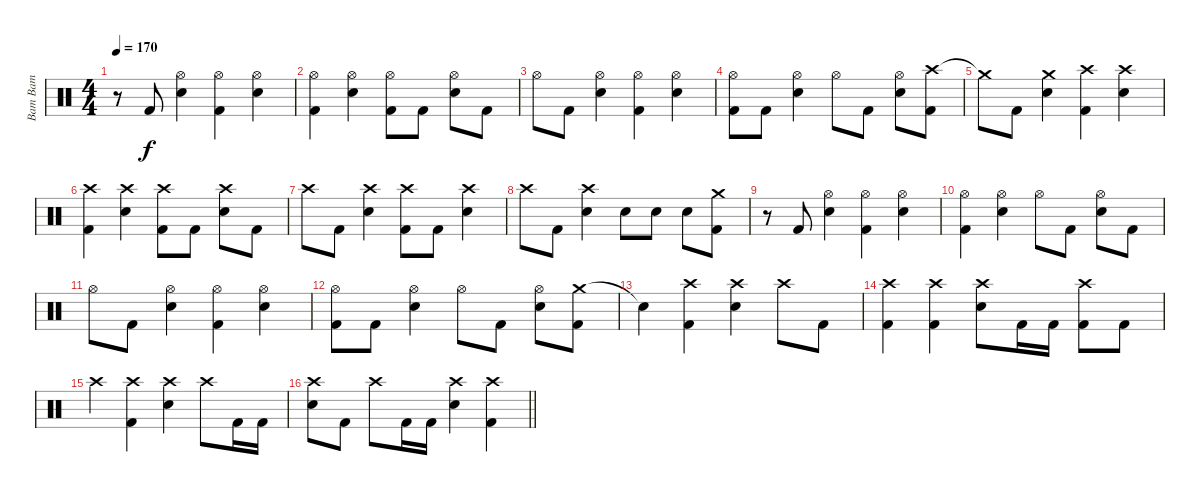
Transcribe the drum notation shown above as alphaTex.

\track ("Bam Bam" "Bam Bam") {instrument percussion}
\staff {score}
\articulation defaults
\ts (4 4)
\tempo 170
\clef neutral
\ks c
r.8{dy f} "Kick (hit) 2".8 ("Hi-Hat (open)" "Electric Snare (hit)").4 ("Hi-Hat (open)" "Kick (hit) 2").4 ("Hi-Hat (open)" "Electric Snare (hit)").4 |
("Hi-Hat (open)" "Kick (hit) 2").4 ("Hi-Hat (open)" "Electric Snare (hit)").4 ("Hi-Hat (open)" "Kick (hit) 2").8 "Kick (hit) 2".8 ("Hi-Hat (open)" "Electric Snare (hit)").8 "Kick (hit) 2".8 |
"Hi-Hat (open)".8 "Kick (hit) 2".8 ("Hi-Hat (open)" "Electric Snare (hit)").4 ("Hi-Hat (open)" "Kick (hit) 2").4 ("Hi-Hat (open)" "Electric Snare (hit)").4 |
("Hi-Hat (open)" "Kick (hit) 2").8 "Kick (hit) 2".8 ("Hi-Hat (open)" "Electric Snare (hit)").4 "Hi-Hat (open)".8 "Kick (hit) 2".8 ("Hi-Hat (open)" "Electric Snare (hit)").8 ("Crash high (hit)" "Kick (hit) 2").8 |
"Crash medium (hit)"{t}.8 "Kick (hit) 2".8 ("Crash medium (hit)" "Electric Snare (hit)").4 ("Crash high (hit)" "Kick (hit) 2").4 ("Crash high (hit)" "Electric Snare (hit)").4 |
("Crash high (hit)" "Kick (hit) 2").4 ("Crash high (hit)" "Electric Snare (hit)").4 ("Crash high (hit)" "Kick (hit) 2").8 "Kick (hit) 2".8 ("Crash high (hit)" "Electric Snare (hit)").8 "Kick (hit) 2".8 |
"Crash high (hit)".8 "Kick (hit) 2".8 ("Crash high (hit)" "Electric Snare (hit)").4 ("Crash high (hit)" "Kick (hit) 2").8 "Kick (hit) 2".8 ("Crash high (hit)" "Electric Snare (hit)").4 |
"Crash high (hit)".8 "Kick (hit) 2".8 ("Crash high (hit)" "Electric Snare (hit)").4 "Electric Snare (hit)".8 "Electric Snare (hit)".8 "Electric Snare (hit)".8 ("Crash medium (hit)" "Kick (hit) 2").8 |
r.8 "Kick (hit) 2".8 ("Hi-Hat (open)" "Electric Snare (hit)").4 ("Hi-Hat (open)" "Kick (hit) 2").4 ("Hi-Hat (open)" "Electric Snare (hit)").4 |
("Hi-Hat (open)" "Kick (hit) 2").4 ("Hi-Hat (open)" "Electric Snare (hit)").4 "Hi-Hat (open)".8 "Kick (hit) 2".8 ("Hi-Hat (open)" "Electric Snare (hit)").8 "Kick (hit) 2".8 |
"Hi-Hat (open)".8 "Kick (hit) 2".8 ("Hi-Hat (open)" "Electric Snare (hit)").4 ("Hi-Hat (open)" "Kick (hit) 2").4 ("Hi-Hat (open)" "Electric Snare (hit)").4 |
("Hi-Hat (open)" "Kick (hit) 2").8 "Kick (hit) 2".8 ("Hi-Hat (open)" "Electric Snare (hit)").4 "Hi-Hat (open)".8 "Kick (hit) 2".8 ("Hi-Hat (open)" "Electric Snare (hit)").8 ("Crash medium (hit)" "Kick (hit) 2").8 |
"Snare (hit)"{t}.4 ("Crash high (hit)" "Kick (hit) 2").4 ("Crash high (hit)" "Electric Snare (hit)").4 "Crash high (hit)".8 "Kick (hit) 2".8 |
("Crash high (hit)" "Kick (hit) 2").4 ("Crash high (hit)" "Kick (hit) 2").4 ("Crash high (hit)" "Electric Snare (hit)").8 "Kick (hit) 2".16 "Kick (hit) 2".16 ("Crash high (hit)" "Kick (hit) 2").8 "Kick (hit) 2".8 |
"Crash high (hit)".4 ("Crash high (hit)" "Kick (hit) 2").4 ("Crash high (hit)" "Electric Snare (hit)").4 "Crash high (hit)".8 "Kick (hit) 2".16 "Kick (hit) 2".16 |
\barLineRight lightlight
("Crash high (hit)" "Electric Snare (hit)").8 "Kick (hit) 2".8 "Crash high (hit)".8 "Kick (hit) 2".16 "Kick (hit) 2".16 ("Crash high (hit)" "Electric Snare (hit)").4 ("Crash high (hit)" "Kick (hit) 2").4
